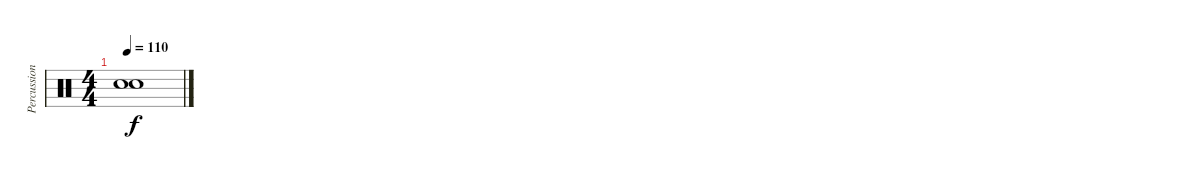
\track ("Percussions" "Percussion") {instrument percussion}
\staff {score}
\articulation defaults
\ts (4 4)
\tempo 110
\clef neutral
\ks c
("Snare (hit)"{t} "Snare (hit)"{t}).1{dy f}
